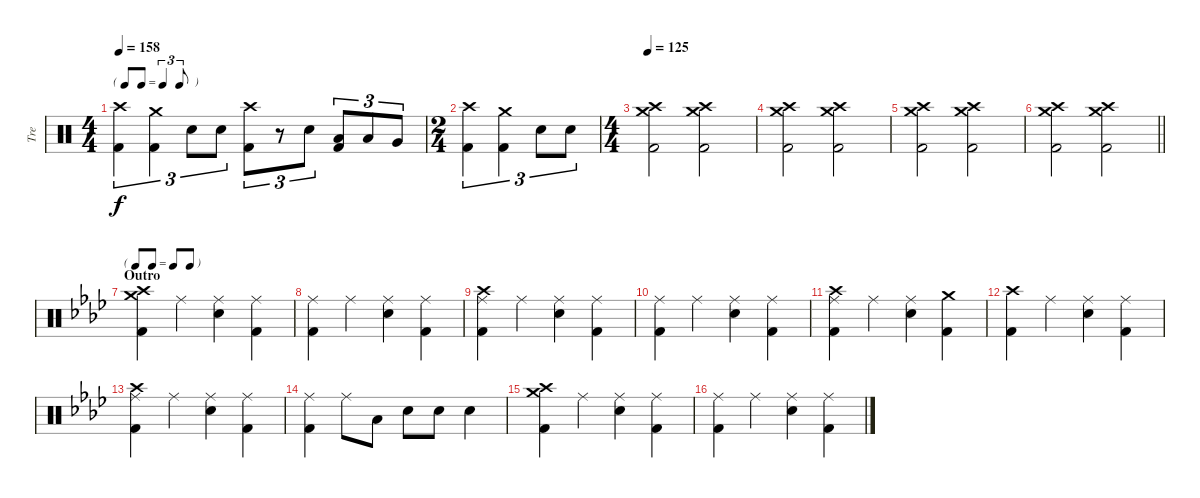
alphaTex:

\track ("Tre" "Tre") {instrument percussion}
\staff {score}
\articulation defaults
\ts (4 4)
\tf triplet8th
\tempo 158
\clef neutral
\ks c
("Crash high (hit)" "Kick (hit) 2").4{tu (3 2) dy f} ("Crash medium (hit)" "Kick (hit) 2").4{tu (3 2)} "Snare (hit) 2".8{tu (3 2)} "Snare (hit) 2".8{tu (3 2)} ("Crash high (hit)" "Kick (hit) 2").8{tu (3 2)} r.8{tu (3 2)} "Snare (hit) 2".8{tu (3 2)} ("Low Tom (hit)" "Kick (hit) 2").8{tu (3 2)} "Low Tom (hit)".8{tu (3 2)} "Very Low Tom (hit)".8{tu (3 2)} |
\ts (2 4)
("Crash high (hit)" "Kick (hit) 2").4{tu (3 2)} ("Crash medium (hit)" "Kick (hit) 2").4{tu (3 2)} "Snare (hit) 2".8{tu (3 2)} "Snare (hit) 2".8{tu (3 2)} |
\ts (4 4)
\tempo 125
("Crash high (hit)" "Crash medium (hit)" "Kick (hit) 2").2 ("Crash high (hit)" "Crash medium (hit)" "Kick (hit) 2").2 |
("Crash high (hit)" "Crash medium (hit)" "Kick (hit) 2").2 ("Crash high (hit)" "Crash medium (hit)" "Kick (hit) 2").2 |
("Crash high (hit)" "Crash medium (hit)" "Kick (hit) 2").2 ("Crash high (hit)" "Crash medium (hit)" "Kick (hit) 2").2 |
\barLineRight lightlight
("Crash high (hit)" "Crash medium (hit)" "Kick (hit) 2").2 ("Crash high (hit)" "Crash medium (hit)" "Kick (hit) 2").2 |
\tf none
\section ("" "Outro")
\ks ab
("Crash high (hit)" "Crash medium (hit)" "Kick (hit) 2").4 "Ride (middle)".4 ("Ride (middle)" "Snare (hit) 2").4 ("Ride (middle)" "Kick (hit) 2").4 |
("Ride (middle)" "Kick (hit) 2").4 "Ride (middle)".4 ("Ride (middle)" "Snare (hit) 2").4 ("Ride (middle)" "Kick (hit) 2").4 |
("Crash high (hit)" "Ride (middle)" "Kick (hit) 2").4 "Ride (middle)".4 ("Ride (middle)" "Snare (hit) 2").4 ("Ride (middle)" "Kick (hit) 2").4 |
("Ride (middle)" "Kick (hit) 2").4 "Ride (middle)".4 ("Ride (middle)" "Snare (hit) 2").4 ("Ride (middle)" "Kick (hit) 2").4 |
("Crash high (hit)" "Ride (middle)" "Kick (hit) 2").4 "Ride (middle)".4 ("Ride (middle)" "Snare (hit) 2").4 ("Crash medium (hit)" "Kick (hit) 2").4 |
("Crash high (hit)" "Kick (hit) 2").4 "Ride (middle)".4 ("Ride (middle)" "Snare (hit) 2").4 ("Ride (middle)" "Kick (hit) 2").4 |
("Crash high (hit)" "Ride (middle)" "Kick (hit) 2").4 "Ride (middle)".4 ("Ride (middle)" "Snare (hit) 2").4 ("Ride (middle)" "Kick (hit) 2").4 |
("Ride (middle)" "Kick (hit) 2").4 "Ride (middle)".8 "Low Tom (hit)".8 "Snare (hit) 2".8 "Snare (hit) 2".8 "Snare (hit) 2".4 |
("Crash high (hit)" "Crash medium (hit)" "Kick (hit) 2").4 "Ride (middle)".4 ("Ride (middle)" "Snare (hit) 2").4 ("Ride (middle)" "Kick (hit) 2").4 |
("Ride (middle)" "Kick (hit) 2").4 "Ride (middle)".4 ("Ride (middle)" "Snare (hit) 2").4 ("Ride (middle)" "Kick (hit) 2").4
